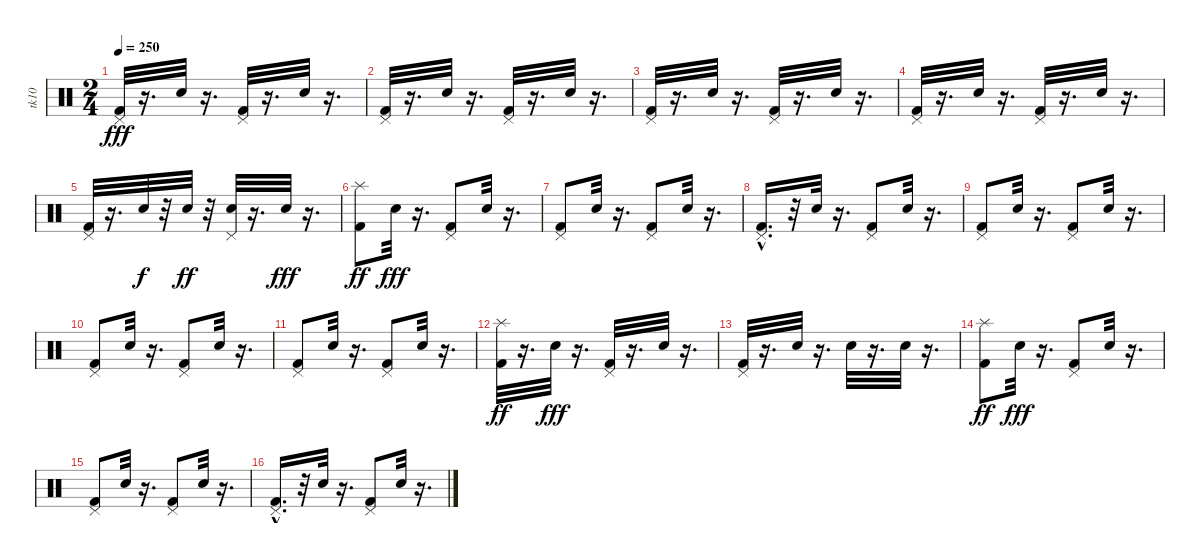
\track ("tk10" "tk10") {instrument percussion}
\staff {score}
\articulation defaults
\ts (2 4)
\tempo 250
\clef neutral
\ks c
("Kick (hit) 2" "Pedal Hi-Hat (hit)").32{dy fff} r.16{d} "Snare (hit) 2".32 r.16{d} ("Kick (hit) 2" "Pedal Hi-Hat (hit)").32 r.16{d} "Snare (hit) 2".32 r.16{d} |
("Kick (hit) 2" "Pedal Hi-Hat (hit)").32 r.16{d} "Snare (hit) 2".32 r.16{d} ("Kick (hit) 2" "Pedal Hi-Hat (hit)").32 r.16{d} "Snare (hit) 2".32 r.16{d} |
("Kick (hit) 2" "Pedal Hi-Hat (hit)").32 r.16{d} "Snare (hit) 2".32 r.16{d} ("Kick (hit) 2" "Pedal Hi-Hat (hit)").32 r.16{d} "Snare (hit) 2".32 r.16{d} |
("Kick (hit) 2" "Pedal Hi-Hat (hit)").32 r.16{d} "Snare (hit) 2".32 r.16{d} ("Kick (hit) 2" "Pedal Hi-Hat (hit)").32 r.16{d} "Snare (hit) 2".32 r.16{d} |
("Kick (hit) 2" "Pedal Hi-Hat (hit)").32 r.16{d} "Electric Snare (hit)".32{dy f} r.32 "Electric Snare (hit)".32{dy ff} r.32 ("Pedal Hi-Hat (hit)" "Electric Snare (hit)").32 r.16{d} "Electric Snare (hit)".32{dy fff} r.16{d} |
("Kick (hit) 2" "Splash (hit)").8{dy ff} "Snare (hit) 2".32{dy fff} r.16{d} ("Kick (hit) 2" "Pedal Hi-Hat (hit)").8 "Snare (hit) 2".32 r.16{d} |
("Kick (hit) 2" "Pedal Hi-Hat (hit)").8 "Snare (hit) 2".32 r.16{d} ("Kick (hit) 2" "Pedal Hi-Hat (hit)").8 "Snare (hit) 2".32 r.16{d} |
("Kick (hit) 2"{hac} "Pedal Hi-Hat (hit)").16{d} r.32 "Snare (hit) 2".32 r.16{d} ("Kick (hit) 2" "Pedal Hi-Hat (hit)").8 "Snare (hit) 2".32 r.16{d} |
("Kick (hit) 2" "Pedal Hi-Hat (hit)").8 "Snare (hit) 2".32 r.16{d} ("Kick (hit) 2" "Pedal Hi-Hat (hit)").8 "Snare (hit) 2".32 r.16{d} |
("Kick (hit) 2" "Pedal Hi-Hat (hit)").8 "Snare (hit) 2".32 r.16{d} ("Kick (hit) 2" "Pedal Hi-Hat (hit)").8 "Snare (hit) 2".32 r.16{d} |
("Kick (hit) 2" "Pedal Hi-Hat (hit)").8 "Snare (hit) 2".32 r.16{d} ("Kick (hit) 2" "Pedal Hi-Hat (hit)").8 "Snare (hit) 2".32 r.16{d} |
("Kick (hit) 2" "Splash (hit)").32{dy ff} r.16{d} "Snare (hit) 2".32{dy fff} r.16{d} ("Kick (hit) 2" "Pedal Hi-Hat (hit)").32 r.16{d} "Snare (hit) 2".32 r.16{d} |
("Kick (hit) 2" "Pedal Hi-Hat (hit)").32 r.16{d} "Electric Snare (hit)".32 r.16{d} "Electric Snare (hit)".32 r.16{d} "Electric Snare (hit)".32 r.16{d} |
("Kick (hit) 2" "Splash (hit)").8{dy ff} "Snare (hit) 2".32{dy fff} r.16{d} ("Kick (hit) 2" "Pedal Hi-Hat (hit)").8 "Snare (hit) 2".32 r.16{d} |
("Kick (hit) 2" "Pedal Hi-Hat (hit)").8 "Snare (hit) 2".32 r.16{d} ("Kick (hit) 2" "Pedal Hi-Hat (hit)").8 "Snare (hit) 2".32 r.16{d} |
("Kick (hit) 2"{hac} "Pedal Hi-Hat (hit)").16{d} r.32 "Snare (hit) 2".32 r.16{d} ("Kick (hit) 2" "Pedal Hi-Hat (hit)").8 "Snare (hit) 2".32 r.16{d}
